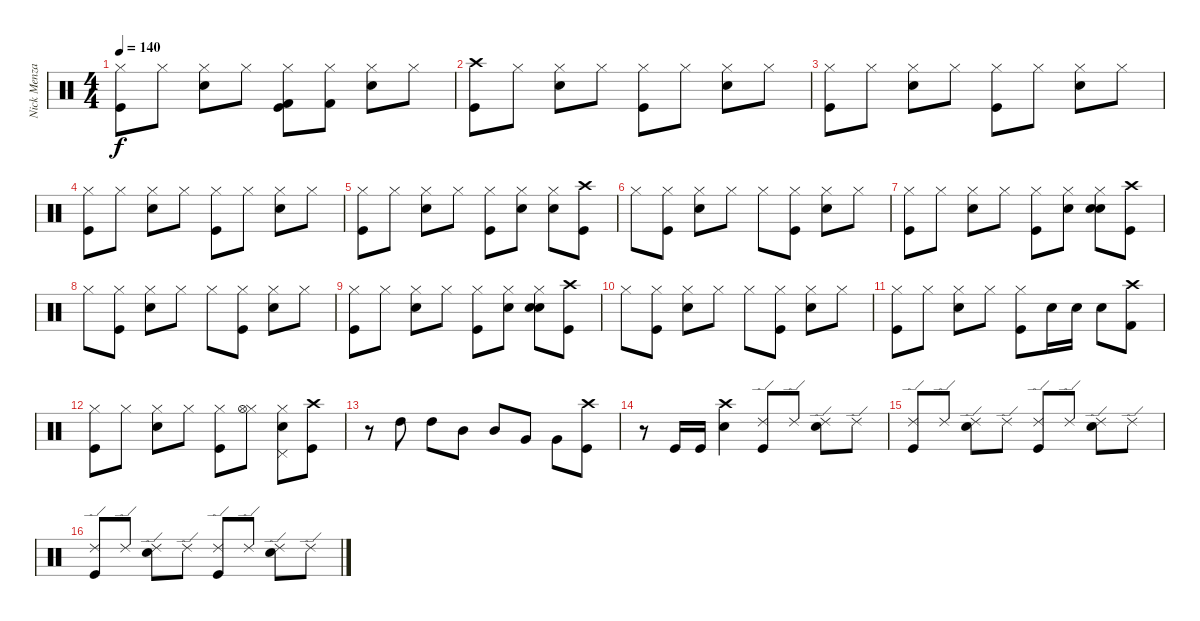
\track ("Nick Menza (Drums)" "Nick Menza") {instrument percussion}
\staff {score}
\articulation defaults
\ts (4 4)
\tempo 140
\clef neutral
\ks c
("Hi-Hat (closed)" "Kick (hit)").8{dy f} "Hi-Hat (closed)".8 ("Hi-Hat (closed)" "Snare (hit) 2").8 "Hi-Hat (closed)".8 ("Hi-Hat (closed)" "Kick (hit) 2" "Kick (hit)").8 ("Hi-Hat (closed)" "Kick (hit) 2").8 ("Hi-Hat (closed)" "Snare (hit) 2").8 "Hi-Hat (closed)".8 |
("Crash high (hit)" "Kick (hit)").8 "Hi-Hat (closed)".8 ("Hi-Hat (closed)" "Snare (hit) 2").8 "Hi-Hat (closed)".8 ("Hi-Hat (closed)" "Kick (hit)").8 "Hi-Hat (closed)".8 ("Hi-Hat (closed)" "Snare (hit) 2").8 "Hi-Hat (closed)".8 |
("Hi-Hat (closed)" "Kick (hit)").8 "Hi-Hat (closed)".8 ("Hi-Hat (closed)" "Snare (hit) 2").8 "Hi-Hat (closed)".8 ("Hi-Hat (closed)" "Kick (hit)").8 "Hi-Hat (closed)".8 ("Hi-Hat (closed)" "Snare (hit) 2").8 "Hi-Hat (closed)".8 |
("Hi-Hat (closed)" "Kick (hit)").8 "Hi-Hat (closed)".8 ("Hi-Hat (closed)" "Snare (hit) 2").8 "Hi-Hat (closed)".8 ("Hi-Hat (closed)" "Kick (hit)").8 "Hi-Hat (closed)".8 ("Hi-Hat (closed)" "Snare (hit) 2").8 "Hi-Hat (closed)".8 |
("Hi-Hat (closed)" "Kick (hit)").8 "Hi-Hat (closed)".8 ("Hi-Hat (closed)" "Snare (hit) 2").8 "Hi-Hat (closed)".8 ("Hi-Hat (closed)" "Kick (hit)").8 ("Hi-Hat (closed)" "Snare (hit) 2").8 ("Hi-Hat (closed)" "Snare (hit) 2").8 ("Crash high (hit)" "Kick (hit)").8 |
"Hi-Hat (closed)".8 ("Hi-Hat (closed)" "Kick (hit)").8 ("Hi-Hat (closed)" "Snare (hit) 2").8 "Hi-Hat (closed)".8 "Hi-Hat (closed)".8 ("Hi-Hat (closed)" "Kick (hit)").8 ("Hi-Hat (closed)" "Snare (hit) 2").8 "Hi-Hat (closed)".8 |
("Hi-Hat (closed)" "Kick (hit)").8 "Hi-Hat (closed)".8 ("Hi-Hat (closed)" "Snare (hit) 2").8 "Hi-Hat (closed)".8 ("Hi-Hat (closed)" "Kick (hit)").8 ("Hi-Hat (closed)" "Electric Snare (hit)").8 ("Hi-Hat (closed)" "Snare (hit) 2" "Electric Snare (hit)").8 ("Crash high (hit)" "Kick (hit)").8 |
"Hi-Hat (closed)".8 ("Hi-Hat (closed)" "Kick (hit)").8 ("Hi-Hat (closed)" "Snare (hit) 2").8 "Hi-Hat (closed)".8 "Hi-Hat (closed)".8 ("Hi-Hat (closed)" "Kick (hit)").8 ("Hi-Hat (closed)" "Snare (hit) 2").8 "Hi-Hat (closed)".8 |
("Hi-Hat (closed)" "Kick (hit)").8 "Hi-Hat (closed)".8 ("Hi-Hat (closed)" "Snare (hit) 2").8 "Hi-Hat (closed)".8 ("Hi-Hat (closed)" "Kick (hit)").8 ("Hi-Hat (closed)" "Electric Snare (hit)").8 ("Hi-Hat (closed)" "Snare (hit) 2" "Electric Snare (hit)").8 ("Crash high (hit)" "Kick (hit)").8 |
"Hi-Hat (closed)".8 ("Hi-Hat (closed)" "Kick (hit)").8 ("Hi-Hat (closed)" "Snare (hit) 2").8 "Hi-Hat (closed)".8 "Hi-Hat (closed)".8 ("Hi-Hat (closed)" "Kick (hit)").8 ("Hi-Hat (closed)" "Snare (hit) 2").8 "Hi-Hat (closed)".8 |
("Hi-Hat (closed)" "Kick (hit)").8 "Hi-Hat (closed)".8 ("Hi-Hat (closed)" "Snare (hit) 2").8 "Hi-Hat (closed)".8 ("Hi-Hat (closed)" "Kick (hit)").8 "Electric Snare (hit)".16 "Electric Snare (hit)".16 "Electric Snare (hit)".8 ("Kick (hit) 2" "Crash high (hit)").8 |
("Hi-Hat (closed)" "Kick (hit)").8 "Hi-Hat (closed)".8 ("Hi-Hat (closed)" "Snare (hit) 2").8 "Hi-Hat (closed)".8 ("Hi-Hat (closed)" "Kick (hit)").8 ("Hi-Hat (closed)" "Hi-Hat (open)").8 ("Hi-Hat (closed)" "Snare (hit) 2" "Pedal Hi-Hat (hit)").8 ("Crash high (hit)" "Kick (hit)").8 |
r.8 "High Tom (hit)".8 "High Tom (hit)".8 "Mid Tom (hit)".8 "Mid Tom (hit)".8 "Very Low Tom (hit)".8 "Very Low Tom (hit)".8 ("Crash high (hit)" "Kick (hit)").8 |
r.8 "Kick (hit)".16 "Kick (hit)".16 ("Crash high (hit)" "Snare (hit) 2").4 ("Ride (edge) 2" "Kick (hit)").8 "Ride (edge) 2".8 ("Ride (edge) 2" "Snare (hit) 2").8 "Ride (edge) 2".8 |
("Ride (edge) 2" "Kick (hit)").8 "Ride (edge) 2".8 ("Ride (edge) 2" "Snare (hit) 2").8 "Ride (edge) 2".8 ("Ride (edge) 2" "Kick (hit)").8 "Ride (edge) 2".8 ("Ride (edge) 2" "Snare (hit) 2").8 "Ride (edge) 2".8 |
("Ride (edge) 2" "Kick (hit)").8 "Ride (edge) 2".8 ("Ride (edge) 2" "Snare (hit) 2").8 "Ride (edge) 2".8 ("Ride (edge) 2" "Kick (hit)").8 "Ride (edge) 2".8 ("Ride (edge) 2" "Snare (hit) 2").8 "Ride (edge) 2".8
